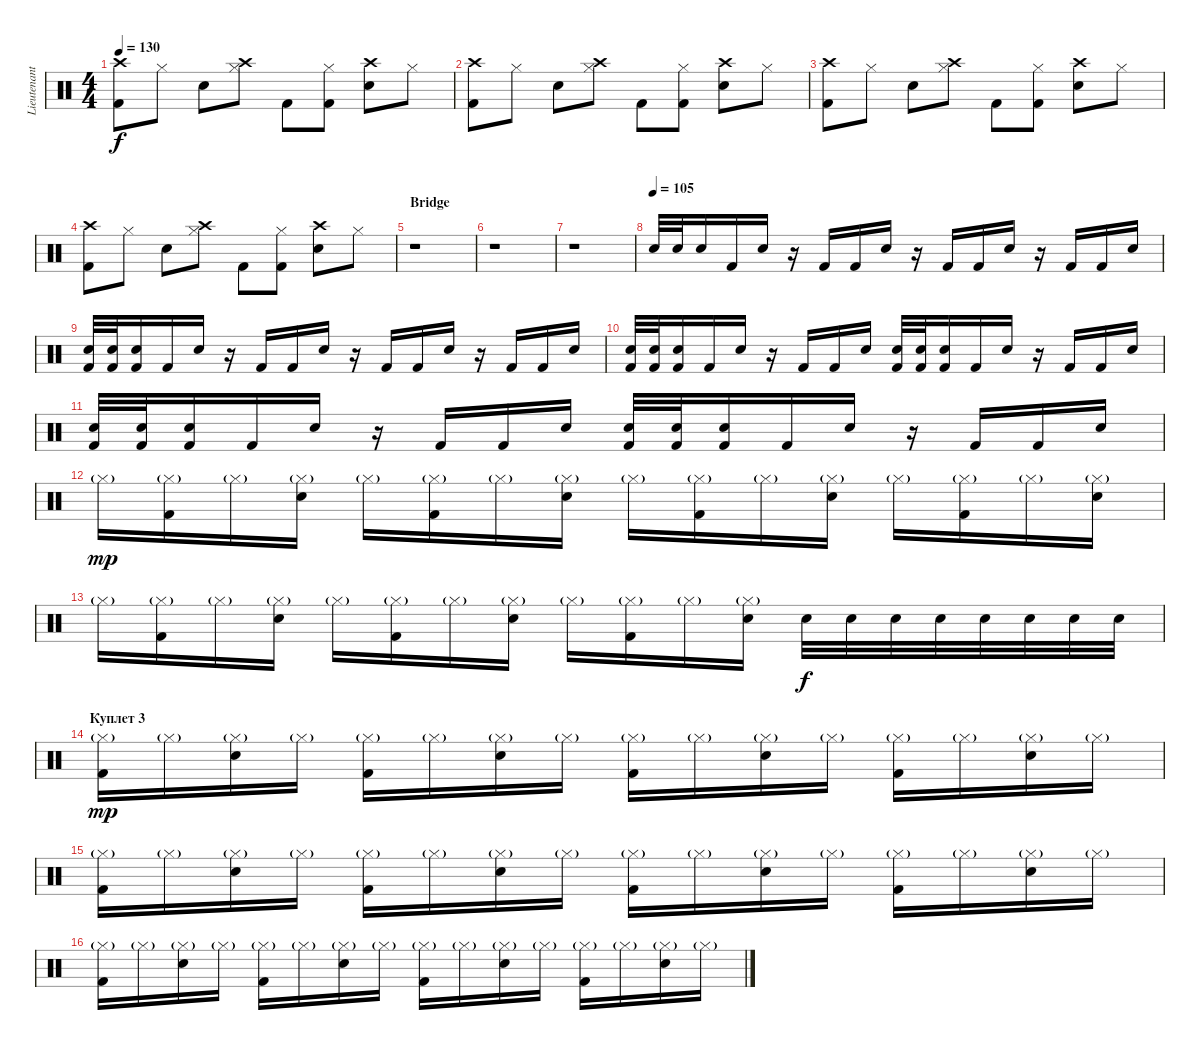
\track ("Lieutenant [drums]" "Lieutenant") {instrument percussion}
\staff {score}
\articulation defaults
\ts (4 4)
\tempo 130
\clef neutral
\ks c
("Kick (hit) 2" "Crash high (hit)").8{dy f} "Hi-Hat (closed)".8 "Snare (hit) 2".8 ("Hi-Hat (closed)" "Crash high (hit)").8 "Kick (hit) 2".8 ("Kick (hit) 2" "Hi-Hat (closed)").8 ("Snare (hit) 2" "Crash high (hit)").8 "Hi-Hat (closed)".8 |
("Kick (hit) 2" "Crash high (hit)").8 "Hi-Hat (closed)".8 "Snare (hit) 2".8 ("Hi-Hat (closed)" "Crash high (hit)").8 "Kick (hit) 2".8 ("Kick (hit) 2" "Hi-Hat (closed)").8 ("Snare (hit) 2" "Crash high (hit)").8 "Hi-Hat (closed)".8 |
("Kick (hit) 2" "Crash high (hit)").8 "Hi-Hat (closed)".8 "Snare (hit) 2".8 ("Hi-Hat (closed)" "Crash high (hit)").8 "Kick (hit) 2".8 ("Kick (hit) 2" "Hi-Hat (closed)").8 ("Snare (hit) 2" "Crash high (hit)").8 "Hi-Hat (closed)".8 |
("Kick (hit) 2" "Crash high (hit)").8 "Hi-Hat (closed)".8 "Snare (hit) 2".8 ("Hi-Hat (closed)" "Crash high (hit)").8 "Kick (hit) 2".8 ("Kick (hit) 2" "Hi-Hat (closed)").8 ("Snare (hit) 2" "Crash high (hit)").8 "Hi-Hat (closed)".8 |
\section ("" "Bridge")
r.1 |
r.1 |
r.1 |
\tempo (105)
"Snare (hit) 2".32 "Snare (hit) 2".32 "Snare (hit) 2".16 "Kick (hit) 2".16 "Snare (hit) 2".16 r.16 "Kick (hit) 2".16 "Kick (hit) 2".16 "Snare (hit) 2".16 r.16 "Kick (hit) 2".16 "Kick (hit) 2".16 "Snare (hit) 2".16 r.16 "Kick (hit) 2".16 "Kick (hit) 2".16 "Snare (hit) 2".16 |
("Snare (hit) 2" "Kick (hit) 2").32 ("Snare (hit) 2" "Kick (hit) 2").32 ("Snare (hit) 2" "Kick (hit) 2").16 "Kick (hit) 2".16 "Snare (hit) 2".16 r.16 "Kick (hit) 2".16 "Kick (hit) 2".16 "Snare (hit) 2".16 r.16 "Kick (hit) 2".16 "Kick (hit) 2".16 "Snare (hit) 2".16 r.16 "Kick (hit) 2".16 "Kick (hit) 2".16 "Snare (hit) 2".16 |
("Snare (hit) 2" "Kick (hit) 2").32 ("Snare (hit) 2" "Kick (hit) 2").32 ("Snare (hit) 2" "Kick (hit) 2").16 "Kick (hit) 2".16 "Snare (hit) 2".16 r.16 "Kick (hit) 2".16 "Kick (hit) 2".16 "Snare (hit) 2".16 ("Snare (hit) 2" "Kick (hit) 2").32 ("Snare (hit) 2" "Kick (hit) 2").32 ("Snare (hit) 2" "Kick (hit) 2").16 "Kick (hit) 2".16 "Snare (hit) 2".16 r.16 "Kick (hit) 2".16 "Kick (hit) 2".16 "Snare (hit) 2".16 |
("Snare (hit) 2" "Kick (hit) 2").32 ("Snare (hit) 2" "Kick (hit) 2").32 ("Snare (hit) 2" "Kick (hit) 2").16 "Kick (hit) 2".16 "Snare (hit) 2".16 r.16 "Kick (hit) 2".16 "Kick (hit) 2".16 "Snare (hit) 2".16 ("Snare (hit) 2" "Kick (hit) 2").32 ("Snare (hit) 2" "Kick (hit) 2").32 ("Snare (hit) 2" "Kick (hit) 2").16 "Kick (hit) 2".16 "Snare (hit) 2".16 r.16 "Kick (hit) 2".16 "Kick (hit) 2".16 "Snare (hit) 2".16 |
"Hi-Hat (closed)"{g}.16{dy mp} ("Kick (hit) 2" "Hi-Hat (closed)"{g}).16 "Hi-Hat (closed)"{g}.16 ("Snare (hit) 2" "Hi-Hat (closed)"{g}).16 "Hi-Hat (closed)"{g}.16 ("Kick (hit) 2" "Hi-Hat (closed)"{g}).16 "Hi-Hat (closed)"{g}.16 ("Snare (hit) 2" "Hi-Hat (closed)"{g}).16 "Hi-Hat (closed)"{g}.16 ("Kick (hit) 2" "Hi-Hat (closed)"{g}).16 "Hi-Hat (closed)"{g}.16 ("Snare (hit) 2" "Hi-Hat (closed)"{g}).16 "Hi-Hat (closed)"{g}.16 ("Kick (hit) 2" "Hi-Hat (closed)"{g}).16 "Hi-Hat (closed)"{g}.16 ("Snare (hit) 2" "Hi-Hat (closed)"{g}).16 |
"Hi-Hat (closed)"{g}.16 ("Kick (hit) 2" "Hi-Hat (closed)"{g}).16 "Hi-Hat (closed)"{g}.16 ("Snare (hit) 2" "Hi-Hat (closed)"{g}).16 "Hi-Hat (closed)"{g}.16 ("Kick (hit) 2" "Hi-Hat (closed)"{g}).16 "Hi-Hat (closed)"{g}.16 ("Snare (hit) 2" "Hi-Hat (closed)"{g}).16 "Hi-Hat (closed)"{g}.16 ("Kick (hit) 2" "Hi-Hat (closed)"{g}).16 "Hi-Hat (closed)"{g}.16 ("Snare (hit) 2" "Hi-Hat (closed)"{g}).16 "Snare (hit) 2".32{dy f} "Snare (hit) 2".32 "Snare (hit) 2".32 "Snare (hit) 2".32 "Snare (hit) 2".32 "Snare (hit) 2".32 "Snare (hit) 2".32 "Snare (hit) 2".32 |
\section ("" "Куплет 3")
("Kick (hit) 2" "Hi-Hat (closed)"{g}).16{dy mp} "Hi-Hat (closed)"{g}.16 ("Snare (hit) 2" "Hi-Hat (closed)"{g}).16 "Hi-Hat (closed)"{g}.16 ("Kick (hit) 2" "Hi-Hat (closed)"{g}).16 "Hi-Hat (closed)"{g}.16 ("Snare (hit) 2" "Hi-Hat (closed)"{g}).16 "Hi-Hat (closed)"{g}.16 ("Kick (hit) 2" "Hi-Hat (closed)"{g}).16 "Hi-Hat (closed)"{g}.16 ("Snare (hit) 2" "Hi-Hat (closed)"{g}).16 "Hi-Hat (closed)"{g}.16 ("Kick (hit) 2" "Hi-Hat (closed)"{g}).16 "Hi-Hat (closed)"{g}.16 ("Snare (hit) 2" "Hi-Hat (closed)"{g}).16 "Hi-Hat (closed)"{g}.16 |
("Kick (hit) 2" "Hi-Hat (closed)"{g}).16 "Hi-Hat (closed)"{g}.16 ("Snare (hit) 2" "Hi-Hat (closed)"{g}).16 "Hi-Hat (closed)"{g}.16 ("Kick (hit) 2" "Hi-Hat (closed)"{g}).16 "Hi-Hat (closed)"{g}.16 ("Snare (hit) 2" "Hi-Hat (closed)"{g}).16 "Hi-Hat (closed)"{g}.16 ("Kick (hit) 2" "Hi-Hat (closed)"{g}).16 "Hi-Hat (closed)"{g}.16 ("Snare (hit) 2" "Hi-Hat (closed)"{g}).16 "Hi-Hat (closed)"{g}.16 ("Kick (hit) 2" "Hi-Hat (closed)"{g}).16 "Hi-Hat (closed)"{g}.16 ("Snare (hit) 2" "Hi-Hat (closed)"{g}).16 "Hi-Hat (closed)"{g}.16 |
("Kick (hit) 2" "Hi-Hat (closed)"{g}).16 "Hi-Hat (closed)"{g}.16 ("Snare (hit) 2" "Hi-Hat (closed)"{g}).16 "Hi-Hat (closed)"{g}.16 ("Kick (hit) 2" "Hi-Hat (closed)"{g}).16 "Hi-Hat (closed)"{g}.16 ("Snare (hit) 2" "Hi-Hat (closed)"{g}).16 "Hi-Hat (closed)"{g}.16 ("Kick (hit) 2" "Hi-Hat (closed)"{g}).16 "Hi-Hat (closed)"{g}.16 ("Snare (hit) 2" "Hi-Hat (closed)"{g}).16 "Hi-Hat (closed)"{g}.16 ("Kick (hit) 2" "Hi-Hat (closed)"{g}).16 "Hi-Hat (closed)"{g}.16 ("Snare (hit) 2" "Hi-Hat (closed)"{g}).16 "Hi-Hat (closed)"{g}.16
